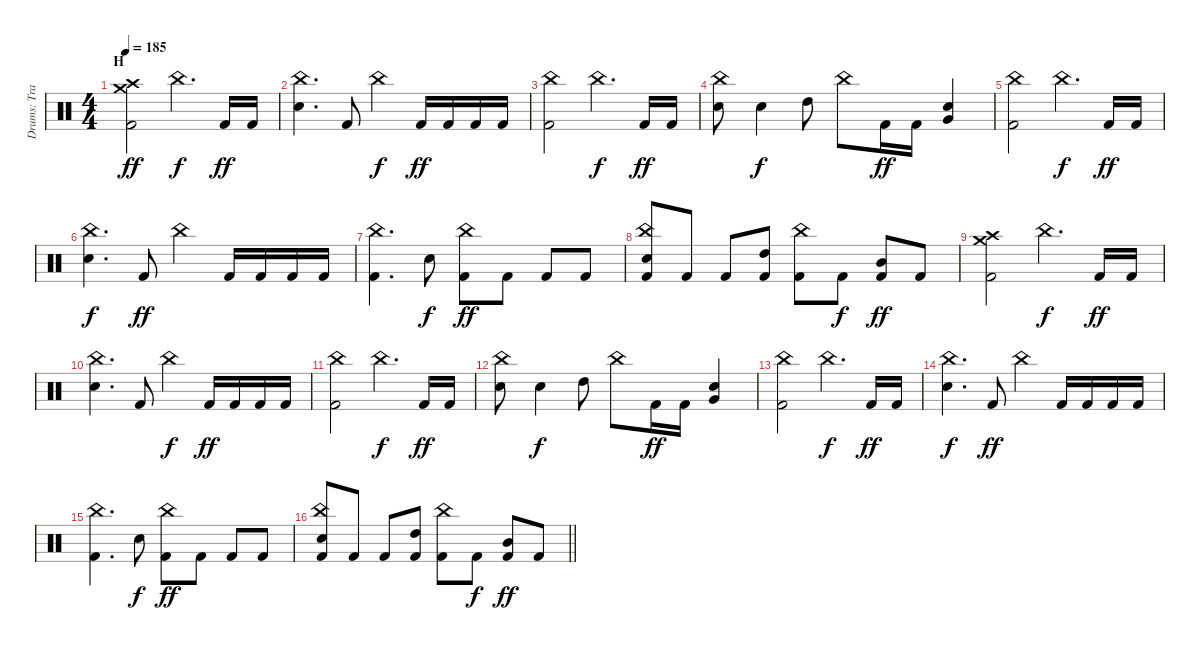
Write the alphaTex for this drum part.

\track ("Drums: Travis Clarke" "Drums: Tra") {instrument percussion}
\staff {score}
\articulation defaults
\ts (4 4)
\section ("" "H")
\tempo 185
\clef neutral
\ks c
("Kick (hit) 2" "Crash high (hit)" "Crash medium (hit)").2{dy ff} "China (hit)".4{d dy f} "Kick (hit) 2".16{dy ff} "Kick (hit) 2".16 |
("Snare (hit) 2" "China (hit)").4{d} "Kick (hit) 2".8 "China (hit)".4{dy f} "Kick (hit) 2".16{dy ff} "Kick (hit) 2".16 "Kick (hit) 2".16 "Kick (hit) 2".16 |
("Kick (hit) 2" "China (hit)").2 "China (hit)".4{d dy f} "Kick (hit) 2".16{dy ff} "Kick (hit) 2".16 |
("Snare (hit) 2" "China (hit)").8 "Snare (hit) 2".4{dy f} "High Tom (hit)".8 "China (hit)".8 "Kick (hit) 2".16{dy ff} "Kick (hit) 2".16 ("Snare (hit) 2" "Very Low Tom (hit)").4 |
("Kick (hit) 2" "China (hit)").2 "China (hit)".4{d dy f} "Kick (hit) 2".16{dy ff} "Kick (hit) 2".16 |
("Snare (hit) 2" "China (hit)").4{d dy f} "Kick (hit) 2".8{dy ff} "China (hit)".4 "Kick (hit) 2".16 "Kick (hit) 2".16 "Kick (hit) 2".16 "Kick (hit) 2".16 |
("Kick (hit) 2" "China (hit)").4{d} "Snare (hit) 2".8{dy f} ("Kick (hit) 2" "China (hit)").8{dy ff} "Kick (hit) 2".8 "Kick (hit) 2".8 "Kick (hit) 2".8 |
("Kick (hit) 2" "Snare (hit) 2" "China (hit)").8 "Kick (hit) 2".8 "Kick (hit) 2".8 ("Kick (hit) 2" "High Tom (hit)").8 ("Kick (hit) 2" "China (hit)").8 "Kick (hit) 2".8{dy f} ("Kick (hit) 2" "Mid Tom (hit)").8{dy ff} "Kick (hit) 2".8 |
("Kick (hit) 2" "Crash high (hit)" "Crash medium (hit)").2 "China (hit)".4{d dy f} "Kick (hit) 2".16{dy ff} "Kick (hit) 2".16 |
("Snare (hit) 2" "China (hit)").4{d} "Kick (hit) 2".8 "China (hit)".4{dy f} "Kick (hit) 2".16{dy ff} "Kick (hit) 2".16 "Kick (hit) 2".16 "Kick (hit) 2".16 |
("Kick (hit) 2" "China (hit)").2 "China (hit)".4{d dy f} "Kick (hit) 2".16{dy ff} "Kick (hit) 2".16 |
("Snare (hit) 2" "China (hit)").8 "Snare (hit) 2".4{dy f} "High Tom (hit)".8 "China (hit)".8 "Kick (hit) 2".16{dy ff} "Kick (hit) 2".16 ("Snare (hit) 2" "Very Low Tom (hit)").4 |
("Kick (hit) 2" "China (hit)").2 "China (hit)".4{d dy f} "Kick (hit) 2".16{dy ff} "Kick (hit) 2".16 |
("Snare (hit) 2" "China (hit)").4{d dy f} "Kick (hit) 2".8{dy ff} "China (hit)".4 "Kick (hit) 2".16 "Kick (hit) 2".16 "Kick (hit) 2".16 "Kick (hit) 2".16 |
("Kick (hit) 2" "China (hit)").4{d} "Snare (hit) 2".8{dy f} ("Kick (hit) 2" "China (hit)").8{dy ff} "Kick (hit) 2".8 "Kick (hit) 2".8 "Kick (hit) 2".8 |
\barLineRight lightlight
("Kick (hit) 2" "Snare (hit) 2" "China (hit)").8 "Kick (hit) 2".8 "Kick (hit) 2".8 ("Kick (hit) 2" "High Tom (hit)").8 ("Kick (hit) 2" "China (hit)").8 "Kick (hit) 2".8{dy f} ("Kick (hit) 2" "Mid Tom (hit)").8{dy ff} "Kick (hit) 2".8
